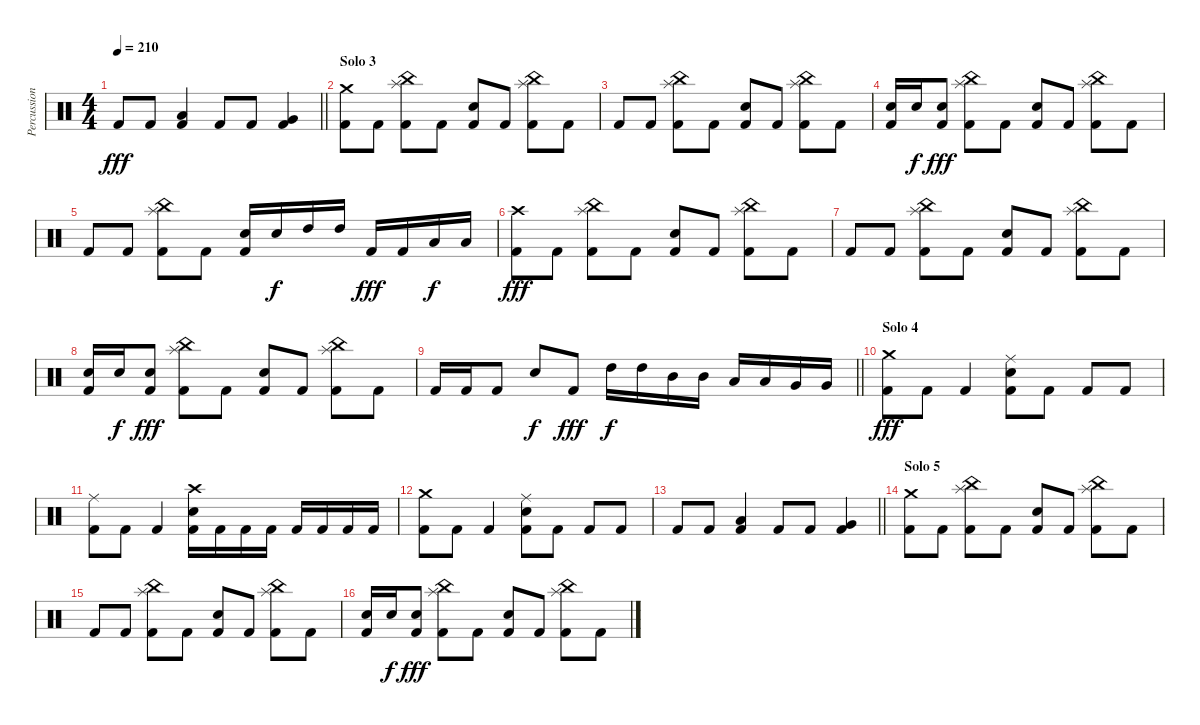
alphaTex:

\track ("Percussions" "Percussion") {instrument percussion}
\staff {score}
\articulation defaults
\ts (4 4)
\tempo 210
\clef neutral
\barLineRight lightlight
\ks c "Kick (hit) 2".8{dy fff} "Kick (hit) 2".8
("Low Tom (hit)" "Kick (hit) 2").4 "Kick (hit) 2".8 "Kick (hit) 2".8 ("Very Low Tom (hit)" "Kick (hit) 2").4 |
\section ("" "Solo 3")
("Crash medium (hit)" "Kick (hit) 2").8 "Kick (hit) 2".8 ("Splash (hit)" "China (hit)" "Kick (hit) 2").8 "Kick (hit) 2".8 ("Electric Snare (hit)" "Kick (hit) 2").8 "Kick (hit) 2".8 ("Splash (hit)" "China (hit)" "Kick (hit) 2").8 "Kick (hit) 2".8 |
"Kick (hit) 2".8 "Kick (hit) 2".8 ("Splash (hit)" "China (hit)" "Kick (hit) 2").8 "Kick (hit) 2".8 ("Electric Snare (hit)" "Kick (hit) 2").8 "Kick (hit) 2".8 ("Splash (hit)" "China (hit)" "Kick (hit) 2").8 "Kick (hit) 2".8 |
("Electric Snare (hit)" "Kick (hit) 2").16 "Electric Snare (hit)".16{dy f} ("Electric Snare (hit)" "Kick (hit) 2").8{dy fff} ("Splash (hit)" "China (hit)" "Kick (hit) 2").8 "Kick (hit) 2".8 ("Electric Snare (hit)" "Kick (hit) 2").8 "Kick (hit) 2".8 ("Splash (hit)" "China (hit)" "Kick (hit) 2").8 "Kick (hit) 2".8 |
"Kick (hit) 2".8 "Kick (hit) 2".8 ("Splash (hit)" "China (hit)" "Kick (hit) 2").8 "Kick (hit) 2".8 ("Electric Snare (hit)" "Kick (hit) 2").16 "Electric Snare (hit)".16{dy f} "High Tom (hit)".16 "High Tom (hit)".16 "Kick (hit) 2".16{dy fff} "Kick (hit) 2".16 "Low Tom (hit)".16{dy f} "Low Tom (hit)".16 |
("Crash high (hit)" "Kick (hit) 2").8{dy fff} "Kick (hit) 2".8 ("Splash (hit)" "China (hit)" "Kick (hit) 2").8 "Kick (hit) 2".8 ("Electric Snare (hit)" "Kick (hit) 2").8 "Kick (hit) 2".8 ("Splash (hit)" "China (hit)" "Kick (hit) 2").8 "Kick (hit) 2".8 |
"Kick (hit) 2".8 "Kick (hit) 2".8 ("Splash (hit)" "China (hit)" "Kick (hit) 2").8 "Kick (hit) 2".8 ("Electric Snare (hit)" "Kick (hit) 2").8 "Kick (hit) 2".8 ("Splash (hit)" "China (hit)" "Kick (hit) 2").8 "Kick (hit) 2".8 |
("Electric Snare (hit)" "Kick (hit) 2").16 "Electric Snare (hit)".16{dy f} ("Electric Snare (hit)" "Kick (hit) 2").8{dy fff} ("Splash (hit)" "China (hit)" "Kick (hit) 2").8 "Kick (hit) 2".8 ("Electric Snare (hit)" "Kick (hit) 2").8 "Kick (hit) 2".8 ("Splash (hit)" "China (hit)" "Kick (hit) 2").8 "Kick (hit) 2".8 |
\barLineRight lightlight "Kick (hit) 2".16 "Kick (hit) 2".16 "Kick (hit) 2".8 "Electric Snare (hit)".8{dy f} "Kick (hit) 2".8{dy fff} "High Tom (hit)".16{dy f} "High Tom (hit)".16 "Mid Tom (hit)".16 "Mid Tom (hit)".16 "Low Tom (hit)".16 "Low Tom (hit)".16 "Very Low Tom (hit)".16 "Very Low Tom (hit)".16
|
\section ("" "Solo 4")
("Crash medium (hit)" "Kick (hit) 2").8{dy fff} "Kick (hit) 2".8 "Kick (hit) 2".4 ("Ride (middle)" "Electric Snare (hit)" "Kick (hit) 2").8 "Kick (hit) 2".8 "Kick (hit) 2".8 "Kick (hit) 2".8 |
("Ride (middle)" "Kick (hit) 2").8 "Kick (hit) 2".8 "Kick (hit) 2".4 ("Crash high (hit)" "Electric Snare (hit)" "Kick (hit) 2").16 "Kick (hit) 2".16 "Kick (hit) 2".16 "Kick (hit) 2".16 "Kick (hit) 2".16 "Kick (hit) 2".16 "Kick (hit) 2".16 "Kick (hit) 2".16 |
("Crash medium (hit)" "Kick (hit) 2").8 "Kick (hit) 2".8 "Kick (hit) 2".4 ("Ride (middle)" "Electric Snare (hit)" "Kick (hit) 2").8 "Kick (hit) 2".8 "Kick (hit) 2".8 "Kick (hit) 2".8 |
\barLineRight lightlight "Kick (hit) 2".8 "Kick (hit) 2".8
("Low Tom (hit)" "Kick (hit) 2").4 "Kick (hit) 2".8 "Kick (hit) 2".8 ("Very Low Tom (hit)" "Kick (hit) 2").4 |
\section ("" "Solo 5")
("Crash medium (hit)" "Kick (hit) 2").8 "Kick (hit) 2".8 ("Splash (hit)" "China (hit)" "Kick (hit) 2").8 "Kick (hit) 2".8 ("Electric Snare (hit)" "Kick (hit) 2").8 "Kick (hit) 2".8 ("Splash (hit)" "China (hit)" "Kick (hit) 2").8 "Kick (hit) 2".8 |
"Kick (hit) 2".8 "Kick (hit) 2".8 ("Splash (hit)" "China (hit)" "Kick (hit) 2").8 "Kick (hit) 2".8 ("Electric Snare (hit)" "Kick (hit) 2").8 "Kick (hit) 2".8 ("Splash (hit)" "China (hit)" "Kick (hit) 2").8 "Kick (hit) 2".8 |
("Electric Snare (hit)" "Kick (hit) 2").16 "Electric Snare (hit)".16{dy f} ("Electric Snare (hit)" "Kick (hit) 2").8{dy fff} ("Splash (hit)" "China (hit)" "Kick (hit) 2").8 "Kick (hit) 2".8 ("Electric Snare (hit)" "Kick (hit) 2").8 "Kick (hit) 2".8 ("Splash (hit)" "China (hit)" "Kick (hit) 2").8 "Kick (hit) 2".8
